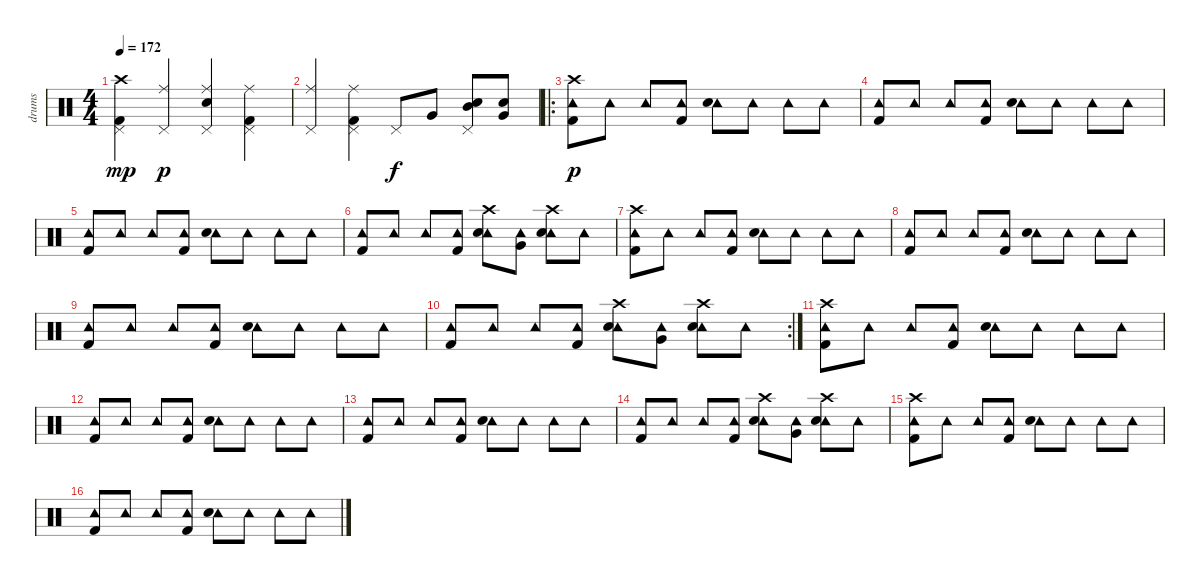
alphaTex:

\track ("drums" "drums") {instrument percussion}
\staff {score}
\articulation defaults
\ts (4 4)
\tempo 172
\clef neutral
\ks c
("Crash high (hit)" "Kick (hit) 2" "Pedal Hi-Hat (hit)").4{dy mp} ("Ride (middle)" "Pedal Hi-Hat (hit)").4{dy p} ("Ride (middle)" "Electric Snare (hit)" "Pedal Hi-Hat (hit)").4 ("Ride (middle)" "Kick (hit) 2" "Pedal Hi-Hat (hit)").4 |
("Ride (middle)" "Pedal Hi-Hat (hit)").4 ("Ride (middle)" "Kick (hit) 2" "Pedal Hi-Hat (hit)").4 "Pedal Hi-Hat (hit)".8{dy f} "Very Low Tom (hit)".8 ("Electric Snare (hit)" "Mid Tom (hit)" "Pedal Hi-Hat (hit)").8 ("Very Low Tom (hit)" "Electric Snare (hit)").8 |
\ro
("Tambourine (hit)" "Kick (hit) 2" "Crash high (hit)").8{dy p} "Tambourine (hit)".8 "Tambourine (hit)".8 ("Tambourine (hit)" "Kick (hit) 2").8 ("Tambourine (hit)" "Snare (hit) 2").8 "Tambourine (hit)".8 "Tambourine (hit)".8 "Tambourine (hit)".8 |
("Tambourine (hit)" "Kick (hit) 2").8 "Tambourine (hit)".8 "Tambourine (hit)".8 ("Tambourine (hit)" "Kick (hit) 2").8 ("Tambourine (hit)" "Snare (hit) 2").8 "Tambourine (hit)".8 "Tambourine (hit)".8 "Tambourine (hit)".8 |
("Tambourine (hit)" "Kick (hit) 2").8 "Tambourine (hit)".8 "Tambourine (hit)".8 ("Tambourine (hit)" "Kick (hit) 2").8 ("Tambourine (hit)" "Snare (hit) 2").8 "Tambourine (hit)".8 "Tambourine (hit)".8 "Tambourine (hit)".8 |
("Tambourine (hit)" "Kick (hit) 2").8 "Tambourine (hit)".8 "Tambourine (hit)".8 ("Tambourine (hit)" "Kick (hit) 2").8 ("Tambourine (hit)" "Snare (hit) 2" "Crash high (hit)").8 ("Tambourine (hit)" "Very Low Tom (hit)").8 ("Tambourine (hit)" "Snare (hit) 2" "Crash high (hit)").8 "Tambourine (hit)".8 |
("Tambourine (hit)" "Kick (hit) 2" "Crash high (hit)").8 "Tambourine (hit)".8 "Tambourine (hit)".8 ("Tambourine (hit)" "Kick (hit) 2").8 ("Tambourine (hit)" "Snare (hit) 2").8 "Tambourine (hit)".8 "Tambourine (hit)".8 "Tambourine (hit)".8 |
("Tambourine (hit)" "Kick (hit) 2").8 "Tambourine (hit)".8 "Tambourine (hit)".8 ("Tambourine (hit)" "Kick (hit) 2").8 ("Tambourine (hit)" "Snare (hit) 2").8 "Tambourine (hit)".8 "Tambourine (hit)".8 "Tambourine (hit)".8 |
("Tambourine (hit)" "Kick (hit) 2").8 "Tambourine (hit)".8 "Tambourine (hit)".8 ("Tambourine (hit)" "Kick (hit) 2").8 ("Tambourine (hit)" "Snare (hit) 2").8 "Tambourine (hit)".8 "Tambourine (hit)".8 "Tambourine (hit)".8 |
\rc 2
("Tambourine (hit)" "Kick (hit) 2").8 "Tambourine (hit)".8 "Tambourine (hit)".8 ("Tambourine (hit)" "Kick (hit) 2").8 ("Tambourine (hit)" "Snare (hit) 2" "Crash high (hit)").8 ("Tambourine (hit)" "Very Low Tom (hit)").8 ("Tambourine (hit)" "Snare (hit) 2" "Crash high (hit)").8 "Tambourine (hit)".8 |
("Tambourine (hit)" "Kick (hit) 2" "Crash high (hit)").8 "Tambourine (hit)".8 "Tambourine (hit)".8 ("Tambourine (hit)" "Kick (hit) 2").8 ("Tambourine (hit)" "Snare (hit) 2").8 "Tambourine (hit)".8 "Tambourine (hit)".8 "Tambourine (hit)".8 |
("Tambourine (hit)" "Kick (hit) 2").8 "Tambourine (hit)".8 "Tambourine (hit)".8 ("Tambourine (hit)" "Kick (hit) 2").8 ("Tambourine (hit)" "Snare (hit) 2").8 "Tambourine (hit)".8 "Tambourine (hit)".8 "Tambourine (hit)".8 |
("Tambourine (hit)" "Kick (hit) 2").8 "Tambourine (hit)".8 "Tambourine (hit)".8 ("Tambourine (hit)" "Kick (hit) 2").8 ("Tambourine (hit)" "Snare (hit) 2").8 "Tambourine (hit)".8 "Tambourine (hit)".8 "Tambourine (hit)".8 |
("Tambourine (hit)" "Kick (hit) 2").8 "Tambourine (hit)".8 "Tambourine (hit)".8 ("Tambourine (hit)" "Kick (hit) 2").8 ("Tambourine (hit)" "Snare (hit) 2" "Crash high (hit)").8 ("Tambourine (hit)" "Very Low Tom (hit)").8 ("Tambourine (hit)" "Snare (hit) 2" "Crash high (hit)").8 "Tambourine (hit)".8 |
("Tambourine (hit)" "Kick (hit) 2" "Crash high (hit)").8 "Tambourine (hit)".8 "Tambourine (hit)".8 ("Tambourine (hit)" "Kick (hit) 2").8 ("Tambourine (hit)" "Snare (hit) 2").8 "Tambourine (hit)".8 "Tambourine (hit)".8 "Tambourine (hit)".8 |
("Tambourine (hit)" "Kick (hit) 2").8 "Tambourine (hit)".8 "Tambourine (hit)".8 ("Tambourine (hit)" "Kick (hit) 2").8 ("Tambourine (hit)" "Snare (hit) 2").8 "Tambourine (hit)".8 "Tambourine (hit)".8 "Tambourine (hit)".8
